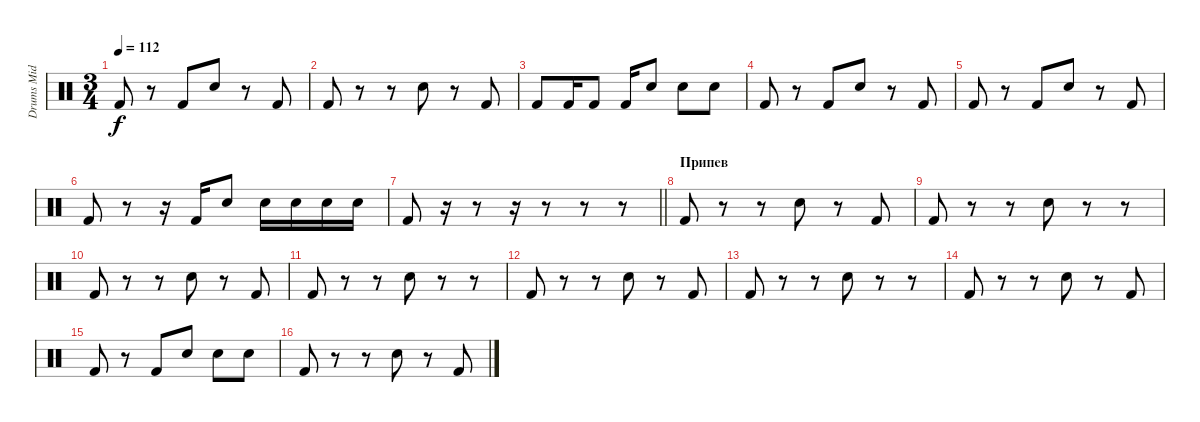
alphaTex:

\track ("Drums Mid" "Drums Mid") {instrument percussion}
\staff {score}
\articulation defaults
\ts (3 4)
\tempo 112
\clef neutral
\ks c "Kick (hit) 2".8{dy f}
r.8 "Kick (hit) 2".8 "Snare (hit) 2".8 r.8 "Kick (hit) 2".8 |
"Kick (hit) 2".8 r.8 r.8 "Snare (hit) 2".8 r.8 "Kick (hit) 2".8 |
"Kick (hit) 2".8 "Kick (hit) 2".16 "Kick (hit) 2".8 "Kick (hit) 2".16 "Snare (hit) 2".8 "Snare (hit) 2".8 "Snare (hit) 2".8 |
"Kick (hit) 2".8 r.8 "Kick (hit) 2".8 "Snare (hit) 2".8 r.8 "Kick (hit) 2".8 |
"Kick (hit) 2".8 r.8 "Kick (hit) 2".8 "Snare (hit) 2".8 r.8 "Kick (hit) 2".8 |
"Kick (hit) 2".8 r.8 r.16 "Kick (hit) 2".16 "Snare (hit) 2".8 "Snare (hit) 2".16 "Snare (hit) 2".16 "Snare (hit) 2".16 "Snare (hit) 2".16 |
\barLineRight lightlight "Kick (hit) 2".8
r.16 r.8 r.16 r.8 r.8 r.8 |
\section ("" "Припев")
"Kick (hit) 2".8 r.8 r.8 "Snare (hit) 2".8 r.8 "Kick (hit) 2".8 |
"Kick (hit) 2".8 r.8 r.8 "Snare (hit) 2".8 r.8 r.8 |
"Kick (hit) 2".8 r.8 r.8 "Snare (hit) 2".8 r.8 "Kick (hit) 2".8 |
"Kick (hit) 2".8 r.8 r.8 "Snare (hit) 2".8 r.8 r.8 |
"Kick (hit) 2".8 r.8 r.8 "Snare (hit) 2".8 r.8 "Kick (hit) 2".8 |
"Kick (hit) 2".8 r.8 r.8 "Snare (hit) 2".8 r.8 r.8 |
"Kick (hit) 2".8 r.8 r.8 "Snare (hit) 2".8 r.8 "Kick (hit) 2".8 |
"Kick (hit) 2".8 r.8 "Kick (hit) 2".8 "Snare (hit) 2".8 "Snare (hit) 2".8 "Snare (hit) 2".8 |
"Kick (hit) 2".8 r.8 r.8 "Snare (hit) 2".8 r.8 "Kick (hit) 2".8
